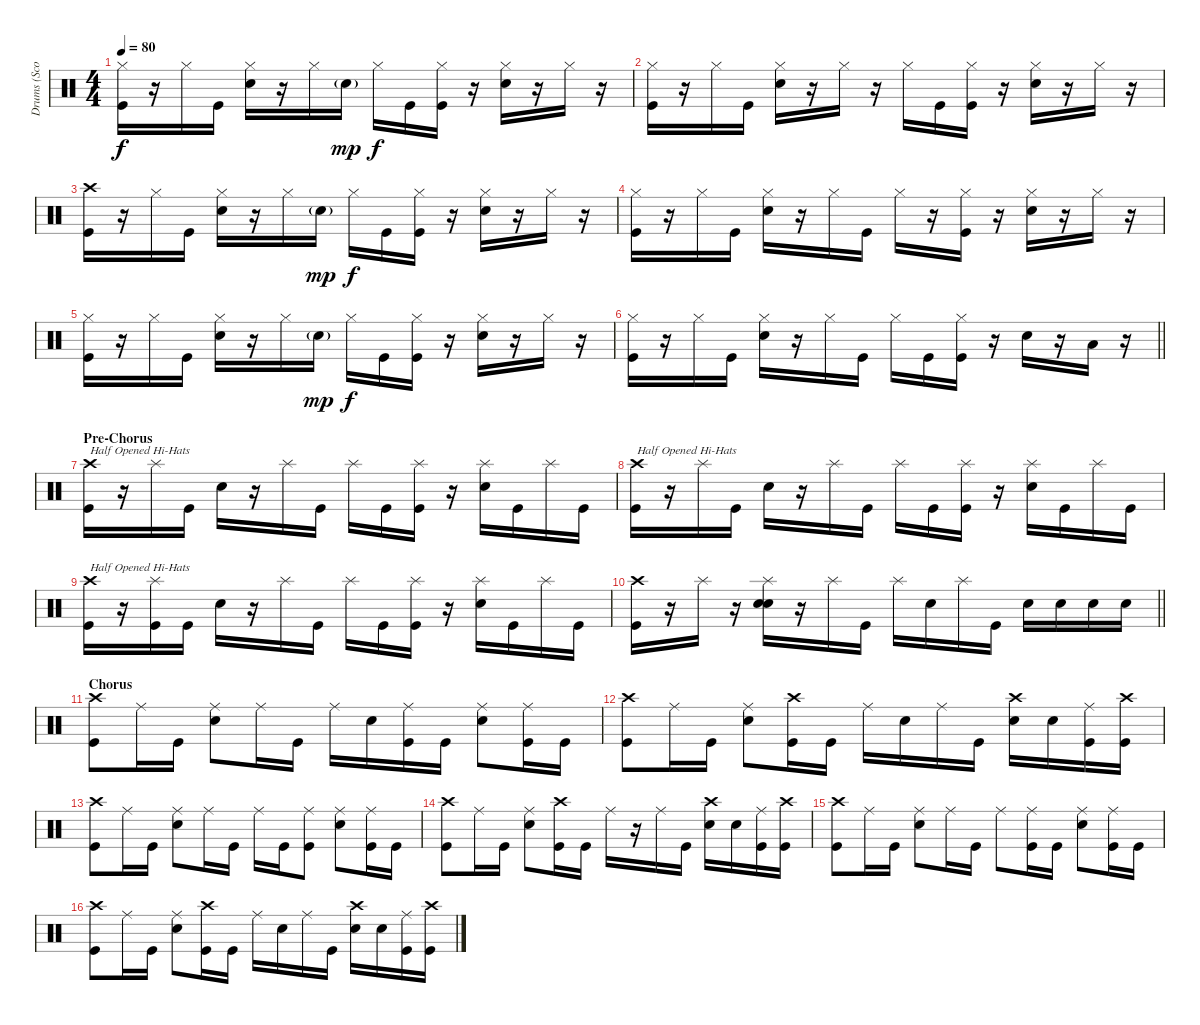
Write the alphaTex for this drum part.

\track ("Drums (Scott Phillips)" "Drums (Sco") {instrument percussion}
\staff {score}
\articulation defaults
\ts (4 4)
\tempo 80
\clef neutral
\ks c
("Hi-Hat (closed)" "Kick (hit)").16{dy f} r.16 "Hi-Hat (closed)".16 "Kick (hit)".16 ("Hi-Hat (closed)" "Snare (hit) 2").16 r.16 "Hi-Hat (closed)".16 "Snare (hit) 2"{g}.16{dy mp} "Hi-Hat (closed)".16{dy f} "Kick (hit)".16 ("Hi-Hat (closed)" "Kick (hit)").16 r.16 ("Hi-Hat (closed)" "Snare (hit) 2").16 r.16 "Hi-Hat (closed)".16 r.16 |
("Hi-Hat (closed)" "Kick (hit)").16 r.16 "Hi-Hat (closed)".16 "Kick (hit)".16 ("Hi-Hat (closed)" "Snare (hit) 2").16 r.16 "Hi-Hat (closed)".16 r.16 "Hi-Hat (closed)".16 "Kick (hit)".16 ("Hi-Hat (closed)" "Kick (hit)").16 r.16 ("Hi-Hat (closed)" "Snare (hit) 2").16 r.16 "Hi-Hat (closed)".16 r.16 |
("Crash high (hit)" "Kick (hit)").16 r.16 "Hi-Hat (closed)".16 "Kick (hit)".16 ("Hi-Hat (closed)" "Snare (hit) 2").16 r.16 "Hi-Hat (closed)".16 "Snare (hit) 2"{g}.16{dy mp} "Hi-Hat (closed)".16{dy f} "Kick (hit)".16 ("Hi-Hat (closed)" "Kick (hit)").16 r.16 ("Hi-Hat (closed)" "Snare (hit) 2").16 r.16 "Hi-Hat (closed)".16 r.16 |
("Hi-Hat (closed)" "Kick (hit)").16 r.16 "Hi-Hat (closed)".16 "Kick (hit)".16 ("Hi-Hat (closed)" "Snare (hit) 2").16 r.16 "Hi-Hat (closed)".16 "Kick (hit)".16 "Hi-Hat (closed)".16 r.16 ("Hi-Hat (closed)" "Kick (hit)").16 r.16 ("Hi-Hat (closed)" "Snare (hit) 2").16 r.16 "Hi-Hat (closed)".16 r.16 |
("Hi-Hat (closed)" "Kick (hit)").16 r.16 "Hi-Hat (closed)".16 "Kick (hit)".16 ("Hi-Hat (closed)" "Snare (hit) 2").16 r.16 "Hi-Hat (closed)".16 "Snare (hit) 2"{g}.16{dy mp} "Hi-Hat (closed)".16{dy f} "Kick (hit)".16 ("Hi-Hat (closed)" "Kick (hit)").16 r.16 ("Hi-Hat (closed)" "Snare (hit) 2").16 r.16 "Hi-Hat (closed)".16 r.16 |
\barLineRight lightlight
("Hi-Hat (closed)" "Kick (hit)").16 r.16 "Hi-Hat (closed)".16 "Kick (hit)".16 ("Hi-Hat (closed)" "Snare (hit) 2").16 r.16 "Hi-Hat (closed)".16 "Kick (hit)".16 "Hi-Hat (closed)".16 "Kick (hit)".16 ("Hi-Hat (closed)" "Kick (hit)").16 r.16 "Snare (hit) 2".16 r.16 "Low Tom (hit)".16 r.16 |
\section ("" "Pre-Chorus")
("Crash high (hit)" "Kick (hit)").16{txt "Half Opened Hi-Hats"} r.16 "Splash (hit)".16 "Kick (hit)".16 "Snare (hit) 2".16 r.16 "Splash (hit)".16 "Kick (hit)".16 "Splash (hit)".16 "Kick (hit)".16 ("Splash (hit)" "Kick (hit)").16 r.16 ("Splash (hit)" "Snare (hit) 2").16 "Kick (hit)".16 "Splash (hit)".16 "Kick (hit)".16 |
("Crash high (hit)" "Kick (hit)").16{txt "Half Opened Hi-Hats"} r.16 "Splash (hit)".16 "Kick (hit)".16 "Snare (hit) 2".16 r.16 "Splash (hit)".16 "Kick (hit)".16 "Splash (hit)".16 "Kick (hit)".16 ("Splash (hit)" "Kick (hit)").16 r.16 ("Splash (hit)" "Snare (hit) 2").16 "Kick (hit)".16 "Splash (hit)".16 "Kick (hit)".16 |
("Crash high (hit)" "Kick (hit)").16{txt "Half Opened Hi-Hats"} r.16 ("Splash (hit)" "Kick (hit)").16 "Kick (hit)".16 "Snare (hit) 2".16 r.16 "Splash (hit)".16 "Kick (hit)".16 "Splash (hit)".16 "Kick (hit)".16 ("Splash (hit)" "Kick (hit)").16 r.16 ("Splash (hit)" "Snare (hit) 2").16 "Kick (hit)".16 "Splash (hit)".16 "Kick (hit)".16 |
\barLineRight lightlight
("Crash high (hit)" "Kick (hit)").16 r.16 "Splash (hit)".16 r.16 ("Splash (hit)" "Snare (hit) 2" "Snare (hit) 2").16 r.16 "Splash (hit)".16 "Kick (hit)".16 "Splash (hit)".16 "Snare (hit) 2".16 "Splash (hit)".16 "Kick (hit)".16 "Snare (hit) 2".16 "Snare (hit) 2".16 "Snare (hit) 2".16 "Snare (hit) 2".16 |
\section ("" "Chorus")
("Crash high (hit)" "Kick (hit)").8 "Ride (middle)".16 "Kick (hit)".16 ("Ride (middle)" "Snare (hit) 2").8 "Ride (middle)".16 "Kick (hit)".16 "Ride (middle)".16 "Snare (hit) 2".16 ("Ride (middle)" "Kick (hit)").16 "Kick (hit)".16 ("Ride (middle)" "Snare (hit) 2").8 ("Ride (middle)" "Kick (hit)").16 "Kick (hit)".16 |
("Crash high (hit)" "Kick (hit)").8 "Ride (middle)".16 "Kick (hit)".16 ("Ride (middle)" "Snare (hit) 2").8 ("Crash high (hit)" "Kick (hit)").16 "Kick (hit)".16 "Ride (middle)".16 "Snare (hit) 2".16 "Ride (middle)".16 "Kick (hit)".16 ("Crash high (hit)" "Snare (hit) 2").16 "Snare (hit) 2".16 ("Ride (middle)" "Kick (hit)").16 ("Crash high (hit)" "Kick (hit)").16 |
("Crash high (hit)" "Kick (hit)").8 "Ride (middle)".16 "Kick (hit)".16 ("Ride (middle)" "Snare (hit) 2").8 "Ride (middle)".16 "Kick (hit)".16 "Ride (middle)".16 "Kick (hit)".16 ("Ride (middle)" "Kick (hit)").8 ("Ride (middle)" "Snare (hit) 2").8 ("Ride (middle)" "Kick (hit)").16 "Kick (hit)".16 |
("Crash high (hit)" "Kick (hit)").8 "Ride (middle)".16 "Kick (hit)".16 ("Ride (middle)" "Snare (hit) 2").8 ("Crash high (hit)" "Kick (hit)").16 "Kick (hit)".16 "Ride (middle)".16 r.16 "Ride (middle)".16 "Kick (hit)".16 ("Crash high (hit)" "Snare (hit) 2").16 "Snare (hit) 2".16 ("Ride (middle)" "Kick (hit)").16 ("Crash high (hit)" "Kick (hit)").16 |
("Crash high (hit)" "Kick (hit)").8 "Ride (middle)".16 "Kick (hit)".16 ("Ride (middle)" "Snare (hit) 2").8 "Ride (middle)".16 "Kick (hit)".16 "Ride (middle)".8 ("Ride (middle)" "Kick (hit)").16 "Kick (hit)".16 ("Ride (middle)" "Snare (hit) 2").8 ("Ride (middle)" "Kick (hit)").16 "Kick (hit)".16 |
("Crash high (hit)" "Kick (hit)").8 "Ride (middle)".16 "Kick (hit)".16 ("Ride (middle)" "Snare (hit) 2").8 ("Crash high (hit)" "Kick (hit)").16 "Kick (hit)".16 "Ride (middle)".16 "Snare (hit) 2".16 "Ride (middle)".16 "Kick (hit)".16 ("Crash high (hit)" "Snare (hit) 2").16 "Snare (hit) 2".16 ("Ride (middle)" "Kick (hit)").16 ("Crash high (hit)" "Kick (hit)").16
